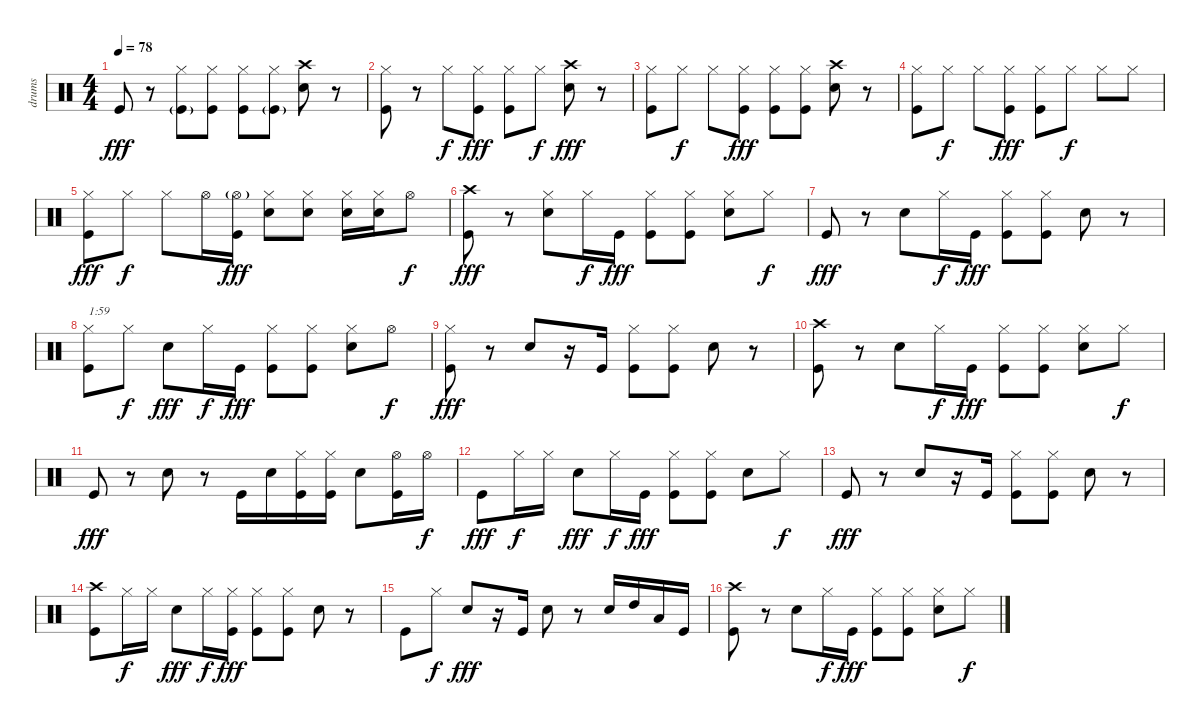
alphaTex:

\track ("drums" "drums") {instrument percussion}
\staff {score}
\articulation defaults
\ts (4 4)
\tempo 78
\clef neutral
\ks c "Kick (hit)".8{txt " " dy fff}
r.8 ("Hi-Hat (closed)" "Kick (hit)"{g}).8 ("Hi-Hat (closed)" "Kick (hit)").8 ("Hi-Hat (closed)" "Kick (hit)").8 ("Hi-Hat (closed)" "Kick (hit)"{g}).8 ("Crash high (hit)" "Electric Snare (hit)").8 r.8 |
("Hi-Hat (closed)" "Kick (hit)").8{txt " "} r.8 "Hi-Hat (closed)".8{dy f} ("Hi-Hat (closed)" "Kick (hit)").8{dy fff} ("Hi-Hat (closed)" "Kick (hit)").8 "Hi-Hat (closed)".8{dy f} ("Crash high (hit)" "Electric Snare (hit)").8{dy fff} r.8 |
("Hi-Hat (closed)" "Kick (hit)").8{txt " "} "Hi-Hat (closed)".8{dy f} "Hi-Hat (closed)".8 ("Hi-Hat (closed)" "Kick (hit)").8{dy fff} ("Hi-Hat (closed)" "Kick (hit)").8 ("Hi-Hat (closed)" "Kick (hit)").8 ("Crash high (hit)" "Electric Snare (hit)").8 r.8 |
("Hi-Hat (closed)" "Kick (hit)").8{txt " "} "Hi-Hat (closed)".8{dy f} "Hi-Hat (closed)".8 ("Hi-Hat (closed)" "Kick (hit)").8{dy fff} ("Hi-Hat (closed)" "Kick (hit)").8 "Hi-Hat (closed)".8{dy f} "Hi-Hat (closed)".8 "Hi-Hat (closed)".8 |
("Hi-Hat (closed)" "Kick (hit)").8{txt " " dy fff} "Hi-Hat (closed)".8{dy f} "Hi-Hat (closed)".8 "Hi-Hat (open)".16 ("Hi-Hat (open)"{g} "Kick (hit)").16{dy fff} ("Electric Snare (hit)" "Hi-Hat (closed)").8 ("Electric Snare (hit)" "Hi-Hat (closed)").8 ("Electric Snare (hit)" "Hi-Hat (closed)").16 ("Electric Snare (hit)" "Hi-Hat (closed)").16 "Hi-Hat (open)".8{dy f} |
("Crash high (hit)" "Kick (hit)").8{txt " " dy fff} r.8 ("Electric Snare (hit)" "Hi-Hat (closed)").8 "Hi-Hat (closed)".16{dy f} "Kick (hit)".16{dy fff} ("Hi-Hat (closed)" "Kick (hit)").8 ("Hi-Hat (closed)" "Kick (hit)").8 ("Electric Snare (hit)" "Hi-Hat (closed)").8 "Hi-Hat (closed)".8{dy f} |
"Kick (hit)".8{txt " " dy fff} r.8 "Electric Snare (hit)".8 "Hi-Hat (closed)".16{dy f} "Kick (hit)".16{dy fff} ("Hi-Hat (closed)" "Kick (hit)").8 ("Hi-Hat (closed)" "Kick (hit)").8 "Electric Snare (hit)".8 r.8 |
("Hi-Hat (closed)" "Kick (hit)").8{txt "1:59"} "Hi-Hat (closed)".8{dy f} "Electric Snare (hit)".8{dy fff} "Hi-Hat (closed)".16{dy f} "Kick (hit)".16{dy fff} ("Hi-Hat (closed)" "Kick (hit)").8 ("Hi-Hat (closed)" "Kick (hit)").8 ("Electric Snare (hit)" "Hi-Hat (closed)").8 "Hi-Hat (open)".8{dy f} |
("Hi-Hat (closed)" "Kick (hit)").8{txt " " dy fff} r.8 "Electric Snare (hit)".8 r.16 "Kick (hit)".16 ("Hi-Hat (closed)" "Kick (hit)").8 ("Hi-Hat (closed)" "Kick (hit)").8 "Electric Snare (hit)".8 r.8 |
("Crash high (hit)" "Kick (hit)").8{txt " "} r.8 "Electric Snare (hit)".8 "Hi-Hat (closed)".16{dy f} "Kick (hit)".16{dy fff} ("Hi-Hat (closed)" "Kick (hit)").8 ("Hi-Hat (closed)" "Kick (hit)").8 ("Electric Snare (hit)" "Hi-Hat (closed)").8 "Hi-Hat (closed)".8{dy f} |
"Kick (hit)".8{txt " " dy fff} r.8 "Electric Snare (hit)".8 r.8 "Kick (hit)".16 "Electric Snare (hit)".16 ("Hi-Hat (closed)" "Kick (hit)").16 ("Hi-Hat (closed)" "Kick (hit)").16 "Electric Snare (hit)".8 ("Hi-Hat (open)" "Kick (hit)").16 "Hi-Hat (open)".16{dy f} |
"Kick (hit)".8{txt " " dy fff} "Hi-Hat (closed)".16{dy f} "Hi-Hat (closed)".16 "Electric Snare (hit)".8{dy fff} "Hi-Hat (closed)".16{dy f} "Kick (hit)".16{dy fff} ("Hi-Hat (closed)" "Kick (hit)").8 ("Hi-Hat (closed)" "Kick (hit)").8 "Electric Snare (hit)".8 "Hi-Hat (closed)".8{dy f} |
"Kick (hit)".8{txt " " dy fff} r.8 "Electric Snare (hit)".8 r.16 "Kick (hit)".16 ("Hi-Hat (closed)" "Kick (hit)").8 ("Hi-Hat (closed)" "Kick (hit)").8 "Electric Snare (hit)".8 r.8 |
("Crash high (hit)" "Kick (hit)").8{txt " "} "Hi-Hat (closed)".16{dy f} "Hi-Hat (closed)".16 "Electric Snare (hit)".8{dy fff} "Hi-Hat (closed)".16{dy f} ("Hi-Hat (closed)" "Kick (hit)").16{dy fff} ("Hi-Hat (closed)" "Kick (hit)").8 ("Hi-Hat (closed)" "Kick (hit)").8 "Electric Snare (hit)".8 r.8 |
"Kick (hit)".8{txt " "} "Hi-Hat (closed)".8{dy f} "Electric Snare (hit)".8{dy fff} r.16 "Kick (hit)".16 "Electric Snare (hit)".8 r.8 "Electric Snare (hit)".16 "High Tom (hit)".16 "Low Tom (hit)".16 "Kick (hit)".16 |
("Crash high (hit)" "Kick (hit)").8{txt " "} r.8 "Electric Snare (hit)".8 "Hi-Hat (closed)".16{dy f} "Kick (hit)".16{dy fff} ("Hi-Hat (closed)" "Kick (hit)").8 ("Hi-Hat (closed)" "Kick (hit)").8 ("Electric Snare (hit)" "Hi-Hat (closed)").8 "Hi-Hat (closed)".8{dy f}
